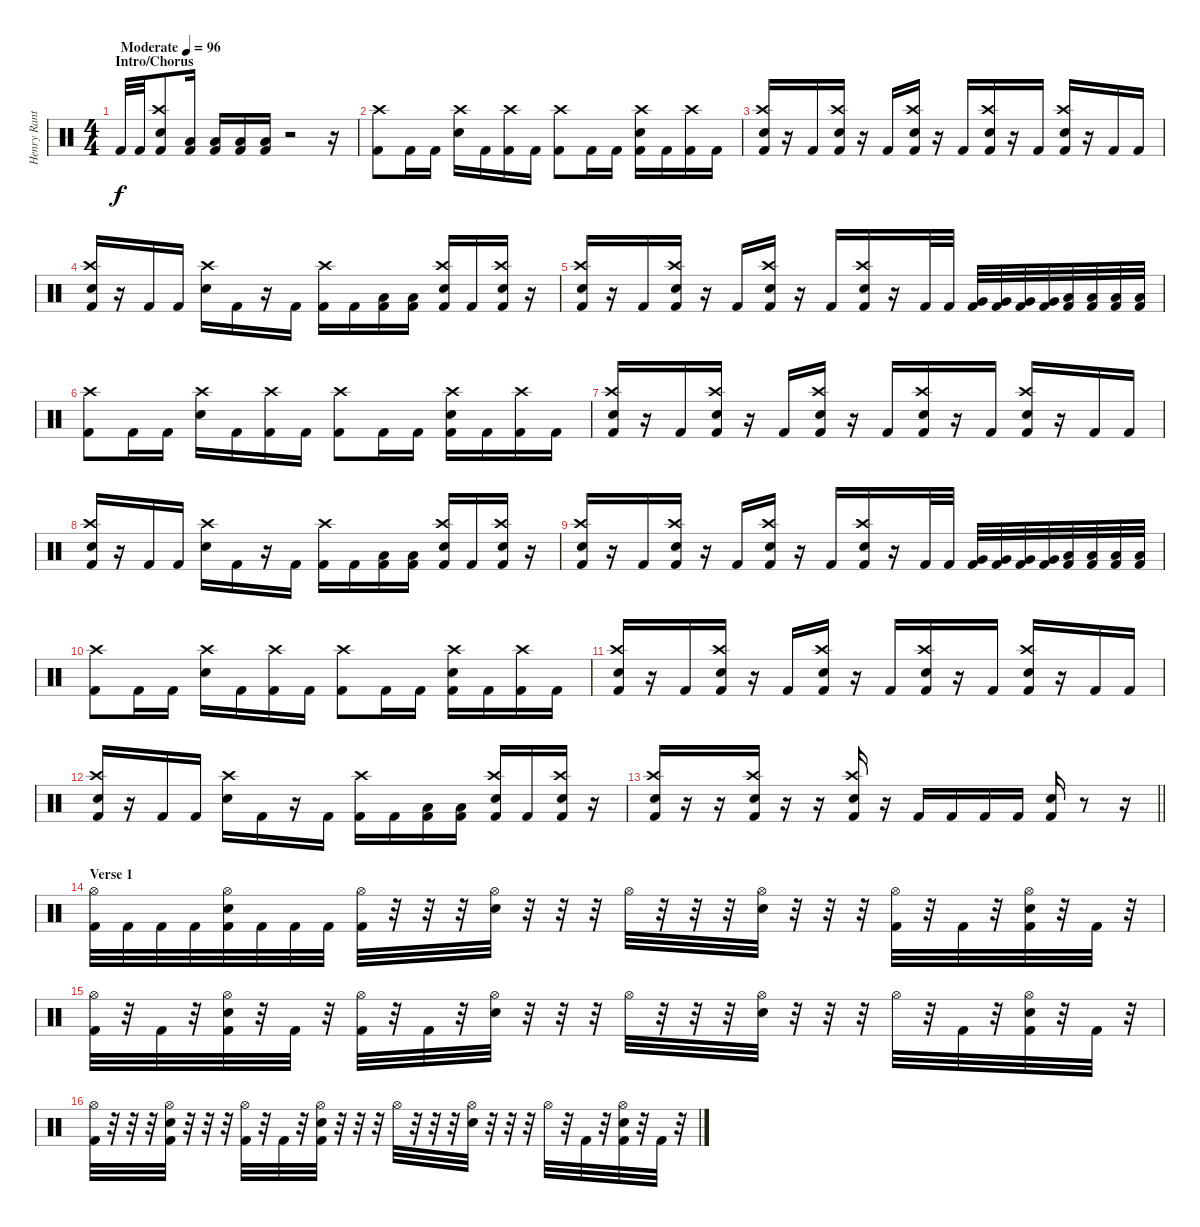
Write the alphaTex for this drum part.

\track ("Henry Ranta (Drumms)" "Henry Rant") {instrument percussion}
\staff {score}
\articulation defaults
\ts (4 4)
\section ("" "Intro/Chorus")
\tempo (96 "Moderate")
\clef neutral
\ks c "Kick (hit) 2".32{dy f} "Kick (hit) 2".32
("Crash high (hit)" "Snare (hit) 2" "Kick (hit) 2").8 ("Low Floor Tom (hit)" "Kick (hit) 2").16 ("Low Floor Tom (hit)" "Kick (hit) 2").16 ("Low Floor Tom (hit)" "Kick (hit) 2").16 ("Low Floor Tom (hit)" "Kick (hit) 2").16 r.2 r.16 |
("Crash high (hit)" "Kick (hit) 2").8 "Kick (hit) 2".16 "Kick (hit) 2".16 ("Crash high (hit)" "Snare (hit) 2").16 "Kick (hit) 2".16 ("Crash high (hit)" "Kick (hit) 2").16 "Kick (hit) 2".16 ("Crash high (hit)" "Kick (hit) 2").8 "Kick (hit) 2".16 "Kick (hit) 2".16 ("Crash high (hit)" "Snare (hit) 2" "Kick (hit) 2").16 "Kick (hit) 2".16 ("Crash high (hit)" "Kick (hit) 2").16 "Kick (hit) 2".16 |
("Crash high (hit)" "Snare (hit) 2" "Kick (hit) 2").16 r.16 "Kick (hit) 2".16 ("Crash high (hit)" "Snare (hit) 2" "Kick (hit) 2").16 r.16 "Kick (hit) 2".16 ("Crash high (hit)" "Snare (hit) 2" "Kick (hit) 2").16 r.16 "Kick (hit) 2".16 ("Crash high (hit)" "Snare (hit) 2" "Kick (hit) 2").16 r.16 "Kick (hit) 2".16 ("Crash high (hit)" "Snare (hit) 2" "Kick (hit) 2").16 r.16 "Kick (hit) 2".16 "Kick (hit) 2".16 |
("Crash high (hit)" "Snare (hit) 2" "Kick (hit) 2").16 r.16 "Kick (hit) 2".16 "Kick (hit) 2".16 ("Crash high (hit)" "Snare (hit) 2").16 "Kick (hit) 2".16 r.16 "Kick (hit) 2".16 ("Crash high (hit)" "Kick (hit) 2").16 "Kick (hit) 2".16 ("Low Floor Tom (hit)" "Kick (hit) 2").16 ("Low Floor Tom (hit)" "Kick (hit) 2").16 ("Crash high (hit)" "Snare (hit) 2" "Kick (hit) 2").16 "Kick (hit) 2".16 ("Crash high (hit)" "Snare (hit) 2" "Kick (hit) 2").16 r.16 |
("Crash high (hit)" "Snare (hit) 2" "Kick (hit) 2").16 r.16 "Kick (hit) 2".16 ("Crash high (hit)" "Snare (hit) 2" "Kick (hit) 2").16 r.16 "Kick (hit) 2".16 ("Crash high (hit)" "Snare (hit) 2" "Kick (hit) 2").16 r.16 "Kick (hit) 2".16 ("Crash high (hit)" "Snare (hit) 2" "Kick (hit) 2").16 r.16 "Kick (hit) 2".32 "Kick (hit) 2".32 ("Very Low Tom (hit)" "Kick (hit) 2").32 ("Very Low Tom (hit)" "Kick (hit) 2").32 ("Very Low Tom (hit)" "Kick (hit) 2").32 ("Very Low Tom (hit)" "Kick (hit) 2").32 ("Low Floor Tom (hit)" "Kick (hit) 2").32 ("Low Floor Tom (hit)" "Kick (hit) 2").32 ("Low Floor Tom (hit)" "Kick (hit) 2").32 ("Low Floor Tom (hit)" "Kick (hit) 2").32 |
("Crash high (hit)" "Kick (hit) 2").8 "Kick (hit) 2".16 "Kick (hit) 2".16 ("Crash high (hit)" "Snare (hit) 2").16 "Kick (hit) 2".16 ("Crash high (hit)" "Kick (hit) 2").16 "Kick (hit) 2".16 ("Crash high (hit)" "Kick (hit) 2").8 "Kick (hit) 2".16 "Kick (hit) 2".16 ("Crash high (hit)" "Snare (hit) 2" "Kick (hit) 2").16 "Kick (hit) 2".16 ("Crash high (hit)" "Kick (hit) 2").16 "Kick (hit) 2".16 |
("Crash high (hit)" "Snare (hit) 2" "Kick (hit) 2").16 r.16 "Kick (hit) 2".16 ("Crash high (hit)" "Snare (hit) 2" "Kick (hit) 2").16 r.16 "Kick (hit) 2".16 ("Crash high (hit)" "Snare (hit) 2" "Kick (hit) 2").16 r.16 "Kick (hit) 2".16 ("Crash high (hit)" "Snare (hit) 2" "Kick (hit) 2").16 r.16 "Kick (hit) 2".16 ("Crash high (hit)" "Snare (hit) 2" "Kick (hit) 2").16 r.16 "Kick (hit) 2".16 "Kick (hit) 2".16 |
("Crash high (hit)" "Snare (hit) 2" "Kick (hit) 2").16 r.16 "Kick (hit) 2".16 "Kick (hit) 2".16 ("Crash high (hit)" "Snare (hit) 2").16 "Kick (hit) 2".16 r.16 "Kick (hit) 2".16 ("Crash high (hit)" "Kick (hit) 2").16 "Kick (hit) 2".16 ("Low Floor Tom (hit)" "Kick (hit) 2").16 ("Low Floor Tom (hit)" "Kick (hit) 2").16 ("Crash high (hit)" "Snare (hit) 2" "Kick (hit) 2").16 "Kick (hit) 2".16 ("Crash high (hit)" "Snare (hit) 2" "Kick (hit) 2").16 r.16 |
("Crash high (hit)" "Snare (hit) 2" "Kick (hit) 2").16 r.16 "Kick (hit) 2".16 ("Crash high (hit)" "Snare (hit) 2" "Kick (hit) 2").16 r.16 "Kick (hit) 2".16 ("Crash high (hit)" "Snare (hit) 2" "Kick (hit) 2").16 r.16 "Kick (hit) 2".16 ("Crash high (hit)" "Snare (hit) 2" "Kick (hit) 2").16 r.16 "Kick (hit) 2".32 "Kick (hit) 2".32 ("Very Low Tom (hit)" "Kick (hit) 2").32 ("Very Low Tom (hit)" "Kick (hit) 2").32 ("Very Low Tom (hit)" "Kick (hit) 2").32 ("Very Low Tom (hit)" "Kick (hit) 2").32 ("Low Floor Tom (hit)" "Kick (hit) 2").32 ("Low Floor Tom (hit)" "Kick (hit) 2").32 ("Low Floor Tom (hit)" "Kick (hit) 2").32 ("Low Floor Tom (hit)" "Kick (hit) 2").32 |
("Crash high (hit)" "Kick (hit) 2").8 "Kick (hit) 2".16 "Kick (hit) 2".16 ("Crash high (hit)" "Snare (hit) 2").16 "Kick (hit) 2".16 ("Crash high (hit)" "Kick (hit) 2").16 "Kick (hit) 2".16 ("Crash high (hit)" "Kick (hit) 2").8 "Kick (hit) 2".16 "Kick (hit) 2".16 ("Crash high (hit)" "Snare (hit) 2" "Kick (hit) 2").16 "Kick (hit) 2".16 ("Crash high (hit)" "Kick (hit) 2").16 "Kick (hit) 2".16 |
("Crash high (hit)" "Snare (hit) 2" "Kick (hit) 2").16 r.16 "Kick (hit) 2".16 ("Crash high (hit)" "Snare (hit) 2" "Kick (hit) 2").16 r.16 "Kick (hit) 2".16 ("Crash high (hit)" "Snare (hit) 2" "Kick (hit) 2").16 r.16 "Kick (hit) 2".16 ("Crash high (hit)" "Snare (hit) 2" "Kick (hit) 2").16 r.16 "Kick (hit) 2".16 ("Crash high (hit)" "Snare (hit) 2" "Kick (hit) 2").16 r.16 "Kick (hit) 2".16 "Kick (hit) 2".16 |
("Crash high (hit)" "Snare (hit) 2" "Kick (hit) 2").16 r.16 "Kick (hit) 2".16 "Kick (hit) 2".16 ("Crash high (hit)" "Snare (hit) 2").16 "Kick (hit) 2".16 r.16 "Kick (hit) 2".16 ("Crash high (hit)" "Kick (hit) 2").16 "Kick (hit) 2".16 ("Low Floor Tom (hit)" "Kick (hit) 2").16 ("Low Floor Tom (hit)" "Kick (hit) 2").16 ("Crash high (hit)" "Snare (hit) 2" "Kick (hit) 2").16 "Kick (hit) 2".16 ("Crash high (hit)" "Snare (hit) 2" "Kick (hit) 2").16 r.16 |
\barLineRight lightlight
("Crash high (hit)" "Snare (hit) 2" "Kick (hit) 2").16 r.16 r.16 ("Crash high (hit)" "Snare (hit) 2" "Kick (hit) 2").16 r.16 r.16 ("Crash high (hit)" "Snare (hit) 2" "Kick (hit) 2").16 r.16 "Kick (hit) 2".16 "Kick (hit) 2".16 "Kick (hit) 2".16 "Kick (hit) 2".16 ("Snare (hit) 2" "Kick (hit) 2").16 r.8 r.16 |
\section ("" "Verse 1")
("Hi-Hat (open)" "Kick (hit) 2").32 "Kick (hit) 2".32 "Kick (hit) 2".32 "Kick (hit) 2".32 ("Hi-Hat (open)" "Snare (hit) 2" "Kick (hit) 2").32 "Kick (hit) 2".32 "Kick (hit) 2".32 "Kick (hit) 2".32 ("Hi-Hat (open)" "Kick (hit) 2").32 r.32 r.32 r.32 ("Hi-Hat (open)" "Snare (hit) 2").32 r.32 r.32 r.32 "Hi-Hat (open)".32 r.32 r.32 r.32 ("Hi-Hat (open)" "Snare (hit) 2").32 r.32 r.32 r.32 ("Hi-Hat (open)" "Kick (hit) 2").32 r.32 "Kick (hit) 2".32 r.32 ("Hi-Hat (open)" "Snare (hit) 2" "Kick (hit) 2").32 r.32 "Kick (hit) 2".32 r.32 |
("Hi-Hat (open)" "Kick (hit) 2").32 r.32 "Kick (hit) 2".32 r.32 ("Hi-Hat (open)" "Snare (hit) 2" "Kick (hit) 2").32 r.32 "Kick (hit) 2".32 r.32 ("Hi-Hat (open)" "Kick (hit) 2").32 r.32 "Kick (hit) 2".32 r.32 ("Hi-Hat (open)" "Snare (hit) 2").32 r.32 r.32 r.32 "Hi-Hat (open)".32 r.32 r.32 r.32 ("Hi-Hat (open)" "Snare (hit) 2").32 r.32 r.32 r.32 "Hi-Hat (open)".32 r.32 "Kick (hit) 2".32 r.32 ("Hi-Hat (open)" "Snare (hit) 2" "Kick (hit) 2").32 r.32 "Kick (hit) 2".32 r.32 |
("Hi-Hat (open)" "Kick (hit) 2").32 r.32 r.32 r.32 ("Hi-Hat (open)" "Snare (hit) 2" "Kick (hit) 2").32 r.32 r.32 r.32 ("Hi-Hat (open)" "Kick (hit) 2").32 r.32 "Kick (hit) 2".32 r.32 ("Hi-Hat (open)" "Snare (hit) 2" "Kick (hit) 2").32 r.32 r.32 r.32 "Hi-Hat (open)".32 r.32 r.32 r.32 ("Hi-Hat (open)" "Snare (hit) 2").32 r.32 r.32 r.32 "Hi-Hat (open)".32 r.32 "Kick (hit) 2".32 r.32 ("Hi-Hat (open)" "Snare (hit) 2" "Kick (hit) 2").32 r.32 "Kick (hit) 2".32 r.32
